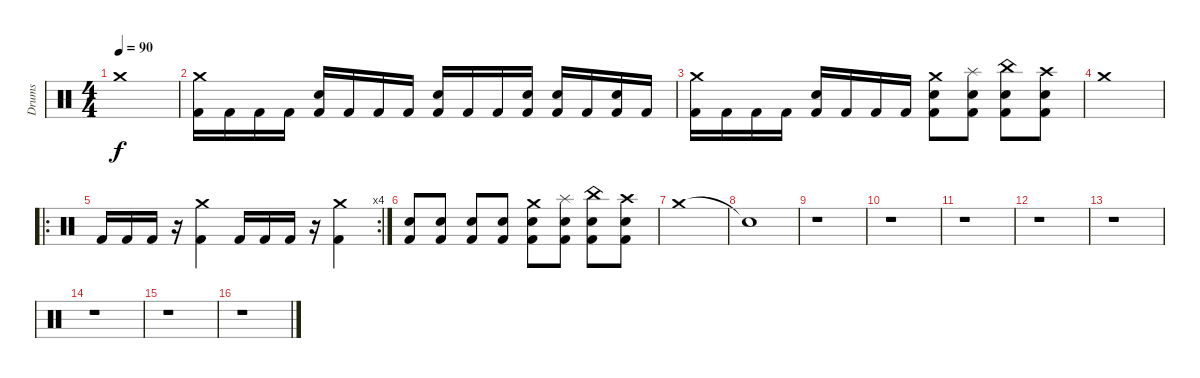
\track ("Drums" "Drums") {instrument percussion}
\staff {score}
\articulation defaults
\ts (4 4)
\tempo 90
\clef neutral
\ks c "Crash medium (hit)".1{dy f}
|
("Crash medium (hit)" "Kick (hit) 2").16 "Kick (hit) 2".16 "Kick (hit) 2".16 "Kick (hit) 2".16 ("Snare (hit) 2" "Kick (hit) 2").16 "Kick (hit) 2".16 "Kick (hit) 2".16 "Kick (hit) 2".16 ("Snare (hit) 2" "Kick (hit) 2").16 "Kick (hit) 2".16 "Kick (hit) 2".16 ("Snare (hit) 2" "Kick (hit) 2").16 ("Snare (hit) 2" "Kick (hit) 2").16 "Kick (hit) 2".16 ("Snare (hit) 2" "Kick (hit) 2").16 "Kick (hit) 2".16 |
("Crash medium (hit)" "Kick (hit) 2").16 "Kick (hit) 2".16 "Kick (hit) 2".16 "Kick (hit) 2".16 ("Snare (hit) 2" "Kick (hit) 2").16 "Kick (hit) 2".16 "Kick (hit) 2".16 "Kick (hit) 2".16 ("Crash medium (hit)" "Snare (hit) 2" "Kick (hit) 2").8 ("Splash (hit)" "Snare (hit) 2" "Kick (hit) 2").8 ("China (hit)" "Snare (hit) 2" "Kick (hit) 2").8 ("Crash high (hit)" "Snare (hit) 2" "Kick (hit) 2").8 |
"Crash medium (hit)".1 |
\ro
\rc 4 "Kick (hit) 2".16 "Kick (hit) 2".16 "Kick (hit) 2".16
r.16 ("Crash medium (hit)" "Kick (hit) 2").4 "Kick (hit) 2".16 "Kick (hit) 2".16 "Kick (hit) 2".16 r.16 ("Crash medium (hit)" "Kick (hit) 2").4 |
("Snare (hit) 2" "Kick (hit) 2").8 ("Snare (hit) 2" "Kick (hit) 2").8 ("Snare (hit) 2" "Kick (hit) 2").8 ("Snare (hit) 2" "Kick (hit) 2").8 ("Crash medium (hit)" "Snare (hit) 2" "Kick (hit) 2").8 ("Splash (hit)" "Snare (hit) 2" "Kick (hit) 2").8 ("China (hit)" "Snare (hit) 2" "Kick (hit) 2").8 ("Crash high (hit)" "Snare (hit) 2" "Kick (hit) 2").8 |
"Crash medium (hit)".1 |
"Snare (hit)"{t}.1 |
r.1 |
r.1 |
r.1 |
r.1 |
r.1 |
r.1 |
r.1 |
r.1
